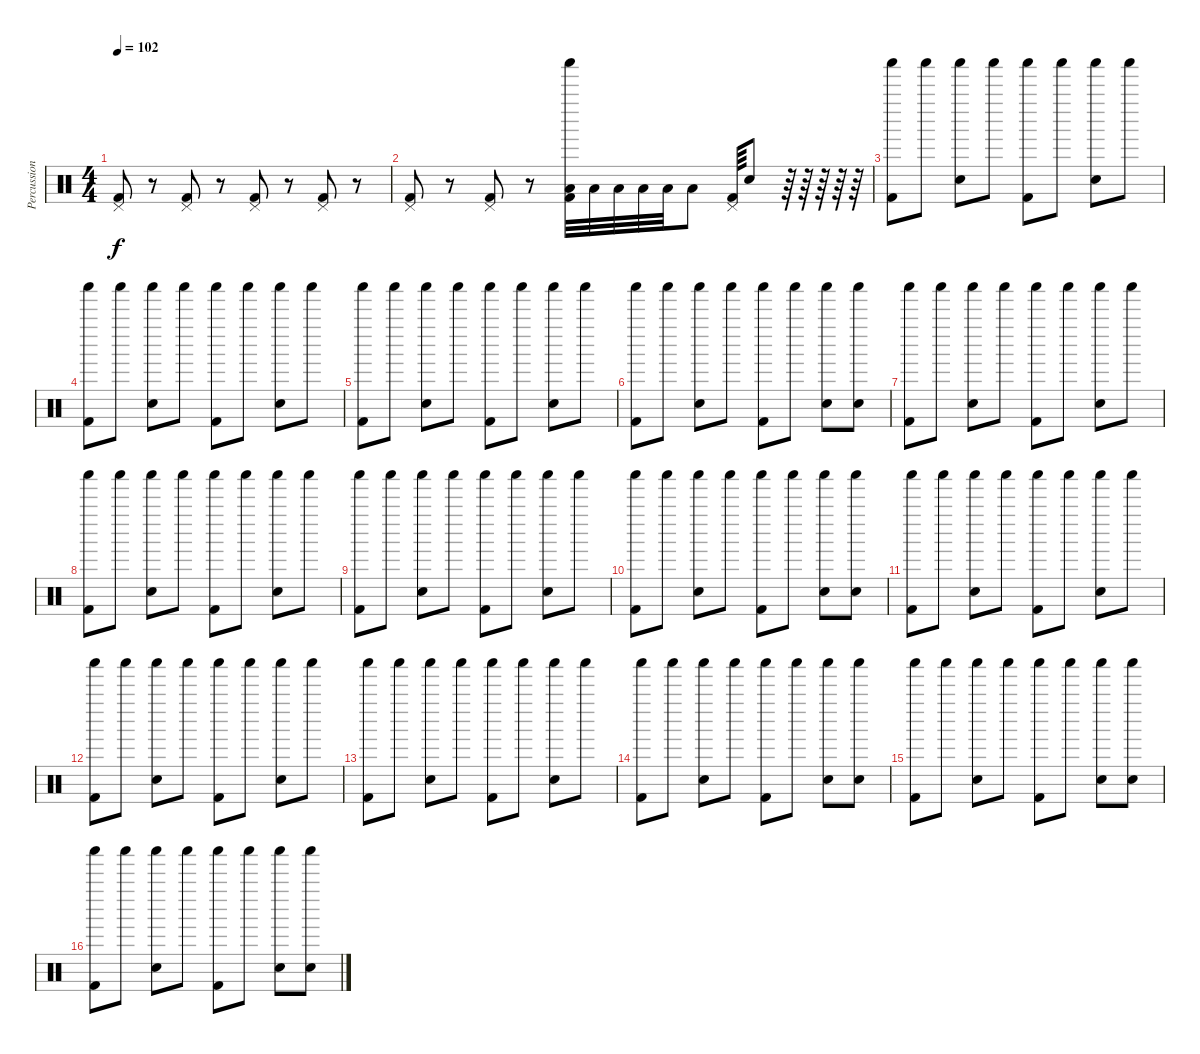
\track ("Percussioni" "Percussion") {instrument percussion}
\staff {score}
\articulation defaults
\ts (4 4)
\tempo 102
\clef neutral
\ks c
("Kick (hit) 2" "Pedal Hi-Hat (hit)").8{dy f} r.8 ("Kick (hit) 2" "Pedal Hi-Hat (hit)").8 r.8 ("Kick (hit) 2" "Pedal Hi-Hat (hit)").8 r.8 ("Kick (hit) 2" "Pedal Hi-Hat (hit)").8 r.8 |
("Kick (hit) 2" "Pedal Hi-Hat (hit)").8 r.8 ("Kick (hit) 2" "Pedal Hi-Hat (hit)").8 r.8 ("Low Floor Tom (hit)" "Kick (hit) 2" "Shaker (hit)").32 "Low Floor Tom (hit)".32 "Low Floor Tom (hit)".32 "Low Floor Tom (hit)".32 "Low Floor Tom (hit)".32 "Low Floor Tom (hit)".8 ("Kick (hit) 2" "Pedal Hi-Hat (hit)").64 "Snare (hit) 2".8 r.64 r.64 r.64 r.64 r.64 |
("Kick (hit) 2" "Shaker (hit)").8 "Shaker (hit)".8 ("Snare (hit) 2" "Shaker (hit)").8 "Shaker (hit)".8 ("Kick (hit) 2" "Shaker (hit)").8 "Shaker (hit)".8 ("Snare (hit) 2" "Shaker (hit)").8 "Shaker (hit)".8 |
("Kick (hit) 2" "Shaker (hit)").8 "Shaker (hit)".8 ("Snare (hit) 2" "Shaker (hit)").8 "Shaker (hit)".8 ("Kick (hit) 2" "Shaker (hit)").8 "Shaker (hit)".8 ("Snare (hit) 2" "Shaker (hit)").8 "Shaker (hit)".8 |
("Kick (hit) 2" "Shaker (hit)").8 "Shaker (hit)".8 ("Snare (hit) 2" "Shaker (hit)").8 "Shaker (hit)".8 ("Kick (hit) 2" "Shaker (hit)").8 "Shaker (hit)".8 ("Snare (hit) 2" "Shaker (hit)").8 "Shaker (hit)".8 |
("Kick (hit) 2" "Shaker (hit)").8 "Shaker (hit)".8 ("Snare (hit) 2" "Shaker (hit)").8 "Shaker (hit)".8 ("Kick (hit) 2" "Shaker (hit)").8 "Shaker (hit)".8 ("Snare (hit) 2" "Shaker (hit)").8 ("Snare (hit) 2" "Shaker (hit)").8 |
("Kick (hit) 2" "Shaker (hit)").8 "Shaker (hit)".8 ("Snare (hit) 2" "Shaker (hit)").8 "Shaker (hit)".8 ("Kick (hit) 2" "Shaker (hit)").8 "Shaker (hit)".8 ("Snare (hit) 2" "Shaker (hit)").8 "Shaker (hit)".8 |
("Kick (hit) 2" "Shaker (hit)").8 "Shaker (hit)".8 ("Snare (hit) 2" "Shaker (hit)").8 "Shaker (hit)".8 ("Kick (hit) 2" "Shaker (hit)").8 "Shaker (hit)".8 ("Snare (hit) 2" "Shaker (hit)").8 "Shaker (hit)".8 |
("Kick (hit) 2" "Shaker (hit)").8 "Shaker (hit)".8 ("Snare (hit) 2" "Shaker (hit)").8 "Shaker (hit)".8 ("Kick (hit) 2" "Shaker (hit)").8 "Shaker (hit)".8 ("Snare (hit) 2" "Shaker (hit)").8 "Shaker (hit)".8 |
("Kick (hit) 2" "Shaker (hit)").8 "Shaker (hit)".8 ("Snare (hit) 2" "Shaker (hit)").8 "Shaker (hit)".8 ("Kick (hit) 2" "Shaker (hit)").8 "Shaker (hit)".8 ("Snare (hit) 2" "Shaker (hit)").8 ("Snare (hit) 2" "Shaker (hit)").8 |
("Kick (hit) 2" "Shaker (hit)").8 "Shaker (hit)".8 ("Snare (hit) 2" "Shaker (hit)").8 "Shaker (hit)".8 ("Kick (hit) 2" "Shaker (hit)").8 "Shaker (hit)".8 ("Snare (hit) 2" "Shaker (hit)").8 "Shaker (hit)".8 |
("Kick (hit) 2" "Shaker (hit)").8 "Shaker (hit)".8 ("Snare (hit) 2" "Shaker (hit)").8 "Shaker (hit)".8 ("Kick (hit) 2" "Shaker (hit)").8 "Shaker (hit)".8 ("Snare (hit) 2" "Shaker (hit)").8 "Shaker (hit)".8 |
("Kick (hit) 2" "Shaker (hit)").8 "Shaker (hit)".8 ("Snare (hit) 2" "Shaker (hit)").8 "Shaker (hit)".8 ("Kick (hit) 2" "Shaker (hit)").8 "Shaker (hit)".8 ("Snare (hit) 2" "Shaker (hit)").8 "Shaker (hit)".8 |
("Kick (hit) 2" "Shaker (hit)").8 "Shaker (hit)".8 ("Snare (hit) 2" "Shaker (hit)").8 "Shaker (hit)".8 ("Kick (hit) 2" "Shaker (hit)").8 "Shaker (hit)".8 ("Snare (hit) 2" "Shaker (hit)").8 ("Snare (hit) 2" "Shaker (hit)").8 |
("Kick (hit) 2" "Shaker (hit)").8 "Shaker (hit)".8 ("Snare (hit) 2" "Shaker (hit)").8 "Shaker (hit)".8 ("Kick (hit) 2" "Shaker (hit)").8 "Shaker (hit)".8 ("Snare (hit) 2" "Shaker (hit)").8 ("Snare (hit) 2" "Shaker (hit)").8 |
("Kick (hit) 2" "Shaker (hit)").8 "Shaker (hit)".8 ("Snare (hit) 2" "Shaker (hit)").8 "Shaker (hit)".8 ("Kick (hit) 2" "Shaker (hit)").8 "Shaker (hit)".8 ("Snare (hit) 2" "Shaker (hit)").8 ("Snare (hit) 2" "Shaker (hit)").8
